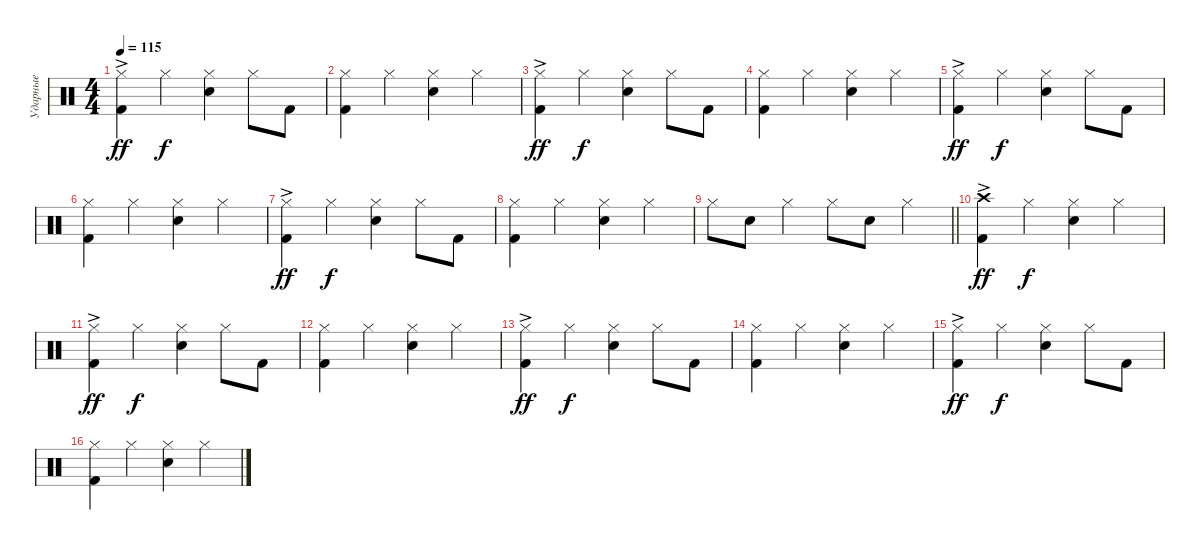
\track ("Ударные" "Ударные") {instrument percussion}
\staff {score}
\articulation defaults
\ts (4 4)
\tempo 115
\clef neutral
\ks c
("Kick (hit) 2" "Hi-Hat (closed)"{ac}).4{dy ff} "Hi-Hat (closed)".4{dy f} ("Snare (hit) 2" "Hi-Hat (closed)").4 "Hi-Hat (closed)".8 "Kick (hit) 2".8 |
("Kick (hit) 2" "Hi-Hat (closed)").4 "Hi-Hat (closed)".4 ("Snare (hit) 2" "Hi-Hat (closed)").4 "Hi-Hat (closed)".4 |
("Kick (hit) 2" "Hi-Hat (closed)"{ac}).4{dy ff} "Hi-Hat (closed)".4{dy f} ("Snare (hit) 2" "Hi-Hat (closed)").4 "Hi-Hat (closed)".8 "Kick (hit) 2".8 |
("Kick (hit) 2" "Hi-Hat (closed)").4 "Hi-Hat (closed)".4 ("Snare (hit) 2" "Hi-Hat (closed)").4 "Hi-Hat (closed)".4 |
("Kick (hit) 2" "Hi-Hat (closed)"{ac}).4{dy ff} "Hi-Hat (closed)".4{dy f} ("Snare (hit) 2" "Hi-Hat (closed)").4 "Hi-Hat (closed)".8 "Kick (hit) 2".8 |
("Kick (hit) 2" "Hi-Hat (closed)").4 "Hi-Hat (closed)".4 ("Snare (hit) 2" "Hi-Hat (closed)").4 "Hi-Hat (closed)".4 |
("Kick (hit) 2" "Hi-Hat (closed)"{ac}).4{dy ff} "Hi-Hat (closed)".4{dy f} ("Snare (hit) 2" "Hi-Hat (closed)").4 "Hi-Hat (closed)".8 "Kick (hit) 2".8 |
("Kick (hit) 2" "Hi-Hat (closed)").4 "Hi-Hat (closed)".4 ("Snare (hit) 2" "Hi-Hat (closed)").4 "Hi-Hat (closed)".4 |
\barLineRight lightlight "Hi-Hat (closed)".8 "Snare (hit) 2".8 "Hi-Hat (closed)".4 "Hi-Hat (closed)".8 "Snare (hit) 2".8 "Hi-Hat (closed)".4
|
("Kick (hit) 2" "Crash high (hit)"{ac}).4{dy ff} "Hi-Hat (closed)".4{dy f} ("Snare (hit) 2" "Hi-Hat (closed)").4 "Hi-Hat (closed)".4 |
("Kick (hit) 2" "Hi-Hat (closed)"{ac}).4{dy ff} "Hi-Hat (closed)".4{dy f} ("Snare (hit) 2" "Hi-Hat (closed)").4 "Hi-Hat (closed)".8 "Kick (hit) 2".8 |
("Kick (hit) 2" "Hi-Hat (closed)").4 "Hi-Hat (closed)".4 ("Snare (hit) 2" "Hi-Hat (closed)").4 "Hi-Hat (closed)".4 |
("Kick (hit) 2" "Hi-Hat (closed)"{ac}).4{dy ff} "Hi-Hat (closed)".4{dy f} ("Snare (hit) 2" "Hi-Hat (closed)").4 "Hi-Hat (closed)".8 "Kick (hit) 2".8 |
("Kick (hit) 2" "Hi-Hat (closed)").4 "Hi-Hat (closed)".4 ("Snare (hit) 2" "Hi-Hat (closed)").4 "Hi-Hat (closed)".4 |
("Kick (hit) 2" "Hi-Hat (closed)"{ac}).4{dy ff} "Hi-Hat (closed)".4{dy f} ("Snare (hit) 2" "Hi-Hat (closed)").4 "Hi-Hat (closed)".8 "Kick (hit) 2".8 |
("Kick (hit) 2" "Hi-Hat (closed)").4 "Hi-Hat (closed)".4 ("Snare (hit) 2" "Hi-Hat (closed)").4 "Hi-Hat (closed)".4
